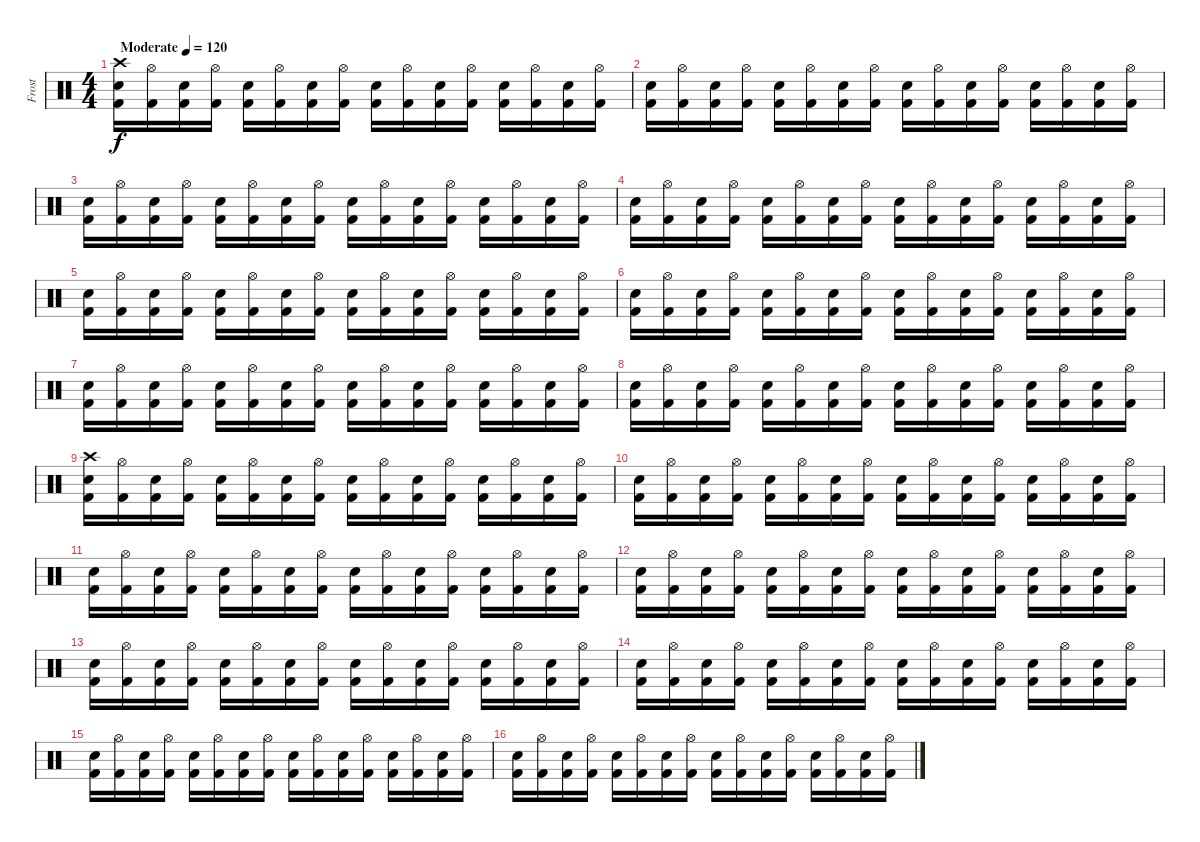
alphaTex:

\track ("Frost" "Frost") {instrument percussion}
\staff {score}
\articulation defaults
\ts (4 4)
\tempo (120 "Moderate")
\tempo 155
\tempo (120 "Moderate")
\clef neutral
\ks c
("Crash high (hit)" "Electric Snare (hit)" "Kick (hit) 2").16{dy f} ("Hi-Hat (open)" "Kick (hit) 2").16 ("Electric Snare (hit)" "Kick (hit) 2").16 ("Hi-Hat (open)" "Kick (hit) 2").16 ("Electric Snare (hit)" "Kick (hit) 2").16 ("Hi-Hat (open)" "Kick (hit) 2").16 ("Electric Snare (hit)" "Kick (hit) 2").16 ("Hi-Hat (open)" "Kick (hit) 2").16 ("Electric Snare (hit)" "Kick (hit) 2").16 ("Hi-Hat (open)" "Kick (hit) 2").16 ("Electric Snare (hit)" "Kick (hit) 2").16 ("Hi-Hat (open)" "Kick (hit) 2").16 ("Electric Snare (hit)" "Kick (hit) 2").16 ("Hi-Hat (open)" "Kick (hit) 2").16 ("Electric Snare (hit)" "Kick (hit) 2").16 ("Hi-Hat (open)" "Kick (hit) 2").16 |
("Electric Snare (hit)" "Kick (hit) 2").16 ("Hi-Hat (open)" "Kick (hit) 2").16 ("Electric Snare (hit)" "Kick (hit) 2").16 ("Hi-Hat (open)" "Kick (hit) 2").16 ("Electric Snare (hit)" "Kick (hit) 2").16 ("Hi-Hat (open)" "Kick (hit) 2").16 ("Electric Snare (hit)" "Kick (hit) 2").16 ("Hi-Hat (open)" "Kick (hit) 2").16 ("Electric Snare (hit)" "Kick (hit) 2").16 ("Hi-Hat (open)" "Kick (hit) 2").16 ("Electric Snare (hit)" "Kick (hit) 2").16 ("Hi-Hat (open)" "Kick (hit) 2").16 ("Electric Snare (hit)" "Kick (hit) 2").16 ("Hi-Hat (open)" "Kick (hit) 2").16 ("Electric Snare (hit)" "Kick (hit) 2").16 ("Hi-Hat (open)" "Kick (hit) 2").16 |
("Electric Snare (hit)" "Kick (hit) 2").16 ("Hi-Hat (open)" "Kick (hit) 2").16 ("Electric Snare (hit)" "Kick (hit) 2").16 ("Hi-Hat (open)" "Kick (hit) 2").16 ("Electric Snare (hit)" "Kick (hit) 2").16 ("Hi-Hat (open)" "Kick (hit) 2").16 ("Electric Snare (hit)" "Kick (hit) 2").16 ("Hi-Hat (open)" "Kick (hit) 2").16 ("Electric Snare (hit)" "Kick (hit) 2").16 ("Hi-Hat (open)" "Kick (hit) 2").16 ("Electric Snare (hit)" "Kick (hit) 2").16 ("Hi-Hat (open)" "Kick (hit) 2").16 ("Electric Snare (hit)" "Kick (hit) 2").16 ("Hi-Hat (open)" "Kick (hit) 2").16 ("Electric Snare (hit)" "Kick (hit) 2").16 ("Hi-Hat (open)" "Kick (hit) 2").16 |
("Electric Snare (hit)" "Kick (hit) 2").16 ("Hi-Hat (open)" "Kick (hit) 2").16 ("Electric Snare (hit)" "Kick (hit) 2").16 ("Hi-Hat (open)" "Kick (hit) 2").16 ("Electric Snare (hit)" "Kick (hit) 2").16 ("Hi-Hat (open)" "Kick (hit) 2").16 ("Electric Snare (hit)" "Kick (hit) 2").16 ("Hi-Hat (open)" "Kick (hit) 2").16 ("Electric Snare (hit)" "Kick (hit) 2").16 ("Hi-Hat (open)" "Kick (hit) 2").16 ("Electric Snare (hit)" "Kick (hit) 2").16 ("Hi-Hat (open)" "Kick (hit) 2").16 ("Electric Snare (hit)" "Kick (hit) 2").16 ("Hi-Hat (open)" "Kick (hit) 2").16 ("Electric Snare (hit)" "Kick (hit) 2").16 ("Hi-Hat (open)" "Kick (hit) 2").16 |
("Electric Snare (hit)" "Kick (hit) 2").16 ("Hi-Hat (open)" "Kick (hit) 2").16 ("Electric Snare (hit)" "Kick (hit) 2").16 ("Hi-Hat (open)" "Kick (hit) 2").16 ("Electric Snare (hit)" "Kick (hit) 2").16 ("Hi-Hat (open)" "Kick (hit) 2").16 ("Electric Snare (hit)" "Kick (hit) 2").16 ("Hi-Hat (open)" "Kick (hit) 2").16 ("Electric Snare (hit)" "Kick (hit) 2").16 ("Hi-Hat (open)" "Kick (hit) 2").16 ("Electric Snare (hit)" "Kick (hit) 2").16 ("Hi-Hat (open)" "Kick (hit) 2").16 ("Electric Snare (hit)" "Kick (hit) 2").16 ("Hi-Hat (open)" "Kick (hit) 2").16 ("Electric Snare (hit)" "Kick (hit) 2").16 ("Hi-Hat (open)" "Kick (hit) 2").16 |
("Electric Snare (hit)" "Kick (hit) 2").16 ("Hi-Hat (open)" "Kick (hit) 2").16 ("Electric Snare (hit)" "Kick (hit) 2").16 ("Hi-Hat (open)" "Kick (hit) 2").16 ("Electric Snare (hit)" "Kick (hit) 2").16 ("Hi-Hat (open)" "Kick (hit) 2").16 ("Electric Snare (hit)" "Kick (hit) 2").16 ("Hi-Hat (open)" "Kick (hit) 2").16 ("Electric Snare (hit)" "Kick (hit) 2").16 ("Hi-Hat (open)" "Kick (hit) 2").16 ("Electric Snare (hit)" "Kick (hit) 2").16 ("Hi-Hat (open)" "Kick (hit) 2").16 ("Electric Snare (hit)" "Kick (hit) 2").16 ("Hi-Hat (open)" "Kick (hit) 2").16 ("Electric Snare (hit)" "Kick (hit) 2").16 ("Hi-Hat (open)" "Kick (hit) 2").16 |
("Electric Snare (hit)" "Kick (hit) 2").16 ("Hi-Hat (open)" "Kick (hit) 2").16 ("Electric Snare (hit)" "Kick (hit) 2").16 ("Hi-Hat (open)" "Kick (hit) 2").16 ("Electric Snare (hit)" "Kick (hit) 2").16 ("Hi-Hat (open)" "Kick (hit) 2").16 ("Electric Snare (hit)" "Kick (hit) 2").16 ("Hi-Hat (open)" "Kick (hit) 2").16 ("Electric Snare (hit)" "Kick (hit) 2").16 ("Hi-Hat (open)" "Kick (hit) 2").16 ("Electric Snare (hit)" "Kick (hit) 2").16 ("Hi-Hat (open)" "Kick (hit) 2").16 ("Electric Snare (hit)" "Kick (hit) 2").16 ("Hi-Hat (open)" "Kick (hit) 2").16 ("Electric Snare (hit)" "Kick (hit) 2").16 ("Hi-Hat (open)" "Kick (hit) 2").16 |
("Electric Snare (hit)" "Kick (hit) 2").16 ("Hi-Hat (open)" "Kick (hit) 2").16 ("Electric Snare (hit)" "Kick (hit) 2").16 ("Hi-Hat (open)" "Kick (hit) 2").16 ("Electric Snare (hit)" "Kick (hit) 2").16 ("Hi-Hat (open)" "Kick (hit) 2").16 ("Electric Snare (hit)" "Kick (hit) 2").16 ("Hi-Hat (open)" "Kick (hit) 2").16 ("Electric Snare (hit)" "Kick (hit) 2").16 ("Hi-Hat (open)" "Kick (hit) 2").16 ("Electric Snare (hit)" "Kick (hit) 2").16 ("Hi-Hat (open)" "Kick (hit) 2").16 ("Electric Snare (hit)" "Kick (hit) 2").16 ("Hi-Hat (open)" "Kick (hit) 2").16 ("Electric Snare (hit)" "Kick (hit) 2").16 ("Hi-Hat (open)" "Kick (hit) 2").16 |
("Crash high (hit)" "Electric Snare (hit)" "Kick (hit) 2").16 ("Hi-Hat (open)" "Kick (hit) 2").16 ("Electric Snare (hit)" "Kick (hit) 2").16 ("Hi-Hat (open)" "Kick (hit) 2").16 ("Electric Snare (hit)" "Kick (hit) 2").16 ("Hi-Hat (open)" "Kick (hit) 2").16 ("Electric Snare (hit)" "Kick (hit) 2").16 ("Hi-Hat (open)" "Kick (hit) 2").16 ("Electric Snare (hit)" "Kick (hit) 2").16 ("Hi-Hat (open)" "Kick (hit) 2").16 ("Electric Snare (hit)" "Kick (hit) 2").16 ("Hi-Hat (open)" "Kick (hit) 2").16 ("Electric Snare (hit)" "Kick (hit) 2").16 ("Hi-Hat (open)" "Kick (hit) 2").16 ("Electric Snare (hit)" "Kick (hit) 2").16 ("Hi-Hat (open)" "Kick (hit) 2").16 |
("Electric Snare (hit)" "Kick (hit) 2").16 ("Hi-Hat (open)" "Kick (hit) 2").16 ("Electric Snare (hit)" "Kick (hit) 2").16 ("Hi-Hat (open)" "Kick (hit) 2").16 ("Electric Snare (hit)" "Kick (hit) 2").16 ("Hi-Hat (open)" "Kick (hit) 2").16 ("Electric Snare (hit)" "Kick (hit) 2").16 ("Hi-Hat (open)" "Kick (hit) 2").16 ("Electric Snare (hit)" "Kick (hit) 2").16 ("Hi-Hat (open)" "Kick (hit) 2").16 ("Electric Snare (hit)" "Kick (hit) 2").16 ("Hi-Hat (open)" "Kick (hit) 2").16 ("Electric Snare (hit)" "Kick (hit) 2").16 ("Hi-Hat (open)" "Kick (hit) 2").16 ("Electric Snare (hit)" "Kick (hit) 2").16 ("Hi-Hat (open)" "Kick (hit) 2").16 |
("Electric Snare (hit)" "Kick (hit) 2").16 ("Hi-Hat (open)" "Kick (hit) 2").16 ("Electric Snare (hit)" "Kick (hit) 2").16 ("Hi-Hat (open)" "Kick (hit) 2").16 ("Electric Snare (hit)" "Kick (hit) 2").16 ("Hi-Hat (open)" "Kick (hit) 2").16 ("Electric Snare (hit)" "Kick (hit) 2").16 ("Hi-Hat (open)" "Kick (hit) 2").16 ("Electric Snare (hit)" "Kick (hit) 2").16 ("Hi-Hat (open)" "Kick (hit) 2").16 ("Electric Snare (hit)" "Kick (hit) 2").16 ("Hi-Hat (open)" "Kick (hit) 2").16 ("Electric Snare (hit)" "Kick (hit) 2").16 ("Hi-Hat (open)" "Kick (hit) 2").16 ("Electric Snare (hit)" "Kick (hit) 2").16 ("Hi-Hat (open)" "Kick (hit) 2").16 |
("Electric Snare (hit)" "Kick (hit) 2").16 ("Hi-Hat (open)" "Kick (hit) 2").16 ("Electric Snare (hit)" "Kick (hit) 2").16 ("Hi-Hat (open)" "Kick (hit) 2").16 ("Electric Snare (hit)" "Kick (hit) 2").16 ("Hi-Hat (open)" "Kick (hit) 2").16 ("Electric Snare (hit)" "Kick (hit) 2").16 ("Hi-Hat (open)" "Kick (hit) 2").16 ("Electric Snare (hit)" "Kick (hit) 2").16 ("Hi-Hat (open)" "Kick (hit) 2").16 ("Electric Snare (hit)" "Kick (hit) 2").16 ("Hi-Hat (open)" "Kick (hit) 2").16 ("Electric Snare (hit)" "Kick (hit) 2").16 ("Hi-Hat (open)" "Kick (hit) 2").16 ("Electric Snare (hit)" "Kick (hit) 2").16 ("Hi-Hat (open)" "Kick (hit) 2").16 |
("Electric Snare (hit)" "Kick (hit) 2").16 ("Hi-Hat (open)" "Kick (hit) 2").16 ("Electric Snare (hit)" "Kick (hit) 2").16 ("Hi-Hat (open)" "Kick (hit) 2").16 ("Electric Snare (hit)" "Kick (hit) 2").16 ("Hi-Hat (open)" "Kick (hit) 2").16 ("Electric Snare (hit)" "Kick (hit) 2").16 ("Hi-Hat (open)" "Kick (hit) 2").16 ("Electric Snare (hit)" "Kick (hit) 2").16 ("Hi-Hat (open)" "Kick (hit) 2").16 ("Electric Snare (hit)" "Kick (hit) 2").16 ("Hi-Hat (open)" "Kick (hit) 2").16 ("Electric Snare (hit)" "Kick (hit) 2").16 ("Hi-Hat (open)" "Kick (hit) 2").16 ("Electric Snare (hit)" "Kick (hit) 2").16 ("Hi-Hat (open)" "Kick (hit) 2").16 |
("Electric Snare (hit)" "Kick (hit) 2").16 ("Hi-Hat (open)" "Kick (hit) 2").16 ("Electric Snare (hit)" "Kick (hit) 2").16 ("Hi-Hat (open)" "Kick (hit) 2").16 ("Electric Snare (hit)" "Kick (hit) 2").16 ("Hi-Hat (open)" "Kick (hit) 2").16 ("Electric Snare (hit)" "Kick (hit) 2").16 ("Hi-Hat (open)" "Kick (hit) 2").16 ("Electric Snare (hit)" "Kick (hit) 2").16 ("Hi-Hat (open)" "Kick (hit) 2").16 ("Electric Snare (hit)" "Kick (hit) 2").16 ("Hi-Hat (open)" "Kick (hit) 2").16 ("Electric Snare (hit)" "Kick (hit) 2").16 ("Hi-Hat (open)" "Kick (hit) 2").16 ("Electric Snare (hit)" "Kick (hit) 2").16 ("Hi-Hat (open)" "Kick (hit) 2").16 |
("Electric Snare (hit)" "Kick (hit) 2").16 ("Hi-Hat (open)" "Kick (hit) 2").16 ("Electric Snare (hit)" "Kick (hit) 2").16 ("Hi-Hat (open)" "Kick (hit) 2").16 ("Electric Snare (hit)" "Kick (hit) 2").16 ("Hi-Hat (open)" "Kick (hit) 2").16 ("Electric Snare (hit)" "Kick (hit) 2").16 ("Hi-Hat (open)" "Kick (hit) 2").16 ("Electric Snare (hit)" "Kick (hit) 2").16 ("Hi-Hat (open)" "Kick (hit) 2").16 ("Electric Snare (hit)" "Kick (hit) 2").16 ("Hi-Hat (open)" "Kick (hit) 2").16 ("Electric Snare (hit)" "Kick (hit) 2").16 ("Hi-Hat (open)" "Kick (hit) 2").16 ("Electric Snare (hit)" "Kick (hit) 2").16 ("Hi-Hat (open)" "Kick (hit) 2").16 |
("Electric Snare (hit)" "Kick (hit) 2").16 ("Hi-Hat (open)" "Kick (hit) 2").16 ("Electric Snare (hit)" "Kick (hit) 2").16 ("Hi-Hat (open)" "Kick (hit) 2").16 ("Electric Snare (hit)" "Kick (hit) 2").16 ("Hi-Hat (open)" "Kick (hit) 2").16 ("Electric Snare (hit)" "Kick (hit) 2").16 ("Hi-Hat (open)" "Kick (hit) 2").16 ("Electric Snare (hit)" "Kick (hit) 2").16 ("Hi-Hat (open)" "Kick (hit) 2").16 ("Electric Snare (hit)" "Kick (hit) 2").16 ("Hi-Hat (open)" "Kick (hit) 2").16 ("Electric Snare (hit)" "Kick (hit) 2").16 ("Hi-Hat (open)" "Kick (hit) 2").16 ("Electric Snare (hit)" "Kick (hit) 2").16 ("Hi-Hat (open)" "Kick (hit) 2").16
